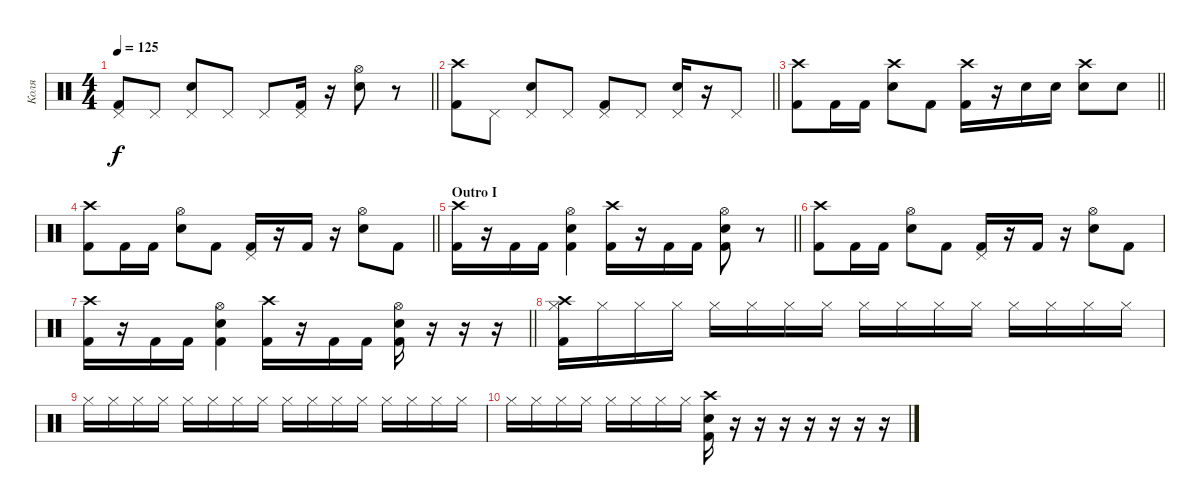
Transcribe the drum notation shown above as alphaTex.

\track ("Коля" "Коля") {instrument percussion}
\staff {score}
\articulation defaults
\ts (4 4)
\tempo 125
\clef neutral
\barLineRight lightlight
\ks c
("Kick (hit) 2" "Pedal Hi-Hat (hit)").8{dy f} "Pedal Hi-Hat (hit)".8 ("Electric Snare (hit)" "Pedal Hi-Hat (hit)").8 "Pedal Hi-Hat (hit)".8 "Pedal Hi-Hat (hit)".8 ("Kick (hit) 2" "Pedal Hi-Hat (hit)").16 r.16 ("Electric Snare (hit)" "Hi-Hat (open)").8 r.8 |
\barLineRight lightlight
("Kick (hit) 2" "Crash high (hit)").8 "Pedal Hi-Hat (hit)".8 ("Electric Snare (hit)" "Pedal Hi-Hat (hit)").8 "Pedal Hi-Hat (hit)".8 ("Kick (hit) 2" "Pedal Hi-Hat (hit)").8 "Pedal Hi-Hat (hit)".8 ("Electric Snare (hit)" "Pedal Hi-Hat (hit)").16 r.16 "Pedal Hi-Hat (hit)".8 |
\barLineRight lightlight
("Kick (hit) 2" "Crash high (hit)").8 "Kick (hit) 2".16 "Kick (hit) 2".16 ("Electric Snare (hit)" "Crash high (hit)").8 "Kick (hit) 2".8 ("Kick (hit) 2" "Crash high (hit)").16 r.16 "Electric Snare (hit)".16 "Electric Snare (hit)".16 ("Electric Snare (hit)" "Crash high (hit)").8 "Electric Snare (hit)".8 |
\barLineRight lightlight
("Kick (hit) 2" "Crash high (hit)").8 "Kick (hit) 2".16 "Kick (hit) 2".16 ("Electric Snare (hit)" "Hi-Hat (open)").8 "Kick (hit) 2".8 ("Kick (hit) 2" "Pedal Hi-Hat (hit)").16 r.16 "Kick (hit) 2".16 r.16 ("Electric Snare (hit)" "Hi-Hat (open)").8 "Kick (hit) 2".8 |
\section ("" "Outro I")
\barLineRight lightlight
("Kick (hit) 2" "Crash high (hit)").16 r.16 "Kick (hit) 2".16 "Kick (hit) 2".16 ("Kick (hit) 2" "Electric Snare (hit)" "Hi-Hat (open)").4 ("Kick (hit) 2" "Crash high (hit)").16 r.16 "Kick (hit) 2".16 "Kick (hit) 2".16 ("Kick (hit) 2" "Electric Snare (hit)" "Hi-Hat (open)").8 r.8 |
("Kick (hit) 2" "Crash high (hit)").8 "Kick (hit) 2".16 "Kick (hit) 2".16 ("Electric Snare (hit)" "Hi-Hat (open)").8 "Kick (hit) 2".8 ("Kick (hit) 2" "Pedal Hi-Hat (hit)").16 r.16 "Kick (hit) 2".16 r.16 ("Electric Snare (hit)" "Hi-Hat (open)").8 "Kick (hit) 2".8 |
\barLineRight lightlight
("Kick (hit) 2" "Crash high (hit)").16 r.16 "Kick (hit) 2".16 "Kick (hit) 2".16 ("Kick (hit) 2" "Electric Snare (hit)" "Hi-Hat (open)").4 ("Kick (hit) 2" "Crash high (hit)").16 r.16 "Kick (hit) 2".16 "Kick (hit) 2".16 ("Kick (hit) 2" "Electric Snare (hit)" "Hi-Hat (open)").16 r.16 r.16 r.16 |
("Kick (hit) 2" "Crash high (hit)" "Hi-Hat (closed)").16 "Hi-Hat (closed)".16 "Hi-Hat (closed)".16 "Hi-Hat (closed)".16 "Hi-Hat (closed)".16 "Hi-Hat (closed)".16 "Hi-Hat (closed)".16 "Hi-Hat (closed)".16 "Hi-Hat (closed)".16 "Hi-Hat (closed)".16 "Hi-Hat (closed)".16 "Hi-Hat (closed)".16 "Hi-Hat (closed)".16 "Hi-Hat (closed)".16 "Hi-Hat (closed)".16 "Hi-Hat (closed)".16 |
"Hi-Hat (closed)".16 "Hi-Hat (closed)".16 "Hi-Hat (closed)".16 "Hi-Hat (closed)".16 "Hi-Hat (closed)".16 "Hi-Hat (closed)".16 "Hi-Hat (closed)".16 "Hi-Hat (closed)".16 "Hi-Hat (closed)".16 "Hi-Hat (closed)".16 "Hi-Hat (closed)".16 "Hi-Hat (closed)".16 "Hi-Hat (closed)".16 "Hi-Hat (closed)".16 "Hi-Hat (closed)".16 "Hi-Hat (closed)".16 |
"Hi-Hat (closed)".16 "Hi-Hat (closed)".16 "Hi-Hat (closed)".16 "Hi-Hat (closed)".16 "Hi-Hat (closed)".16 "Hi-Hat (closed)".16 "Hi-Hat (closed)".16 "Hi-Hat (closed)".16 ("Kick (hit) 2" "Electric Snare (hit)" "Crash high (hit)").16 r.16 r.16 r.16 r.16 r.16 r.16 r.16
